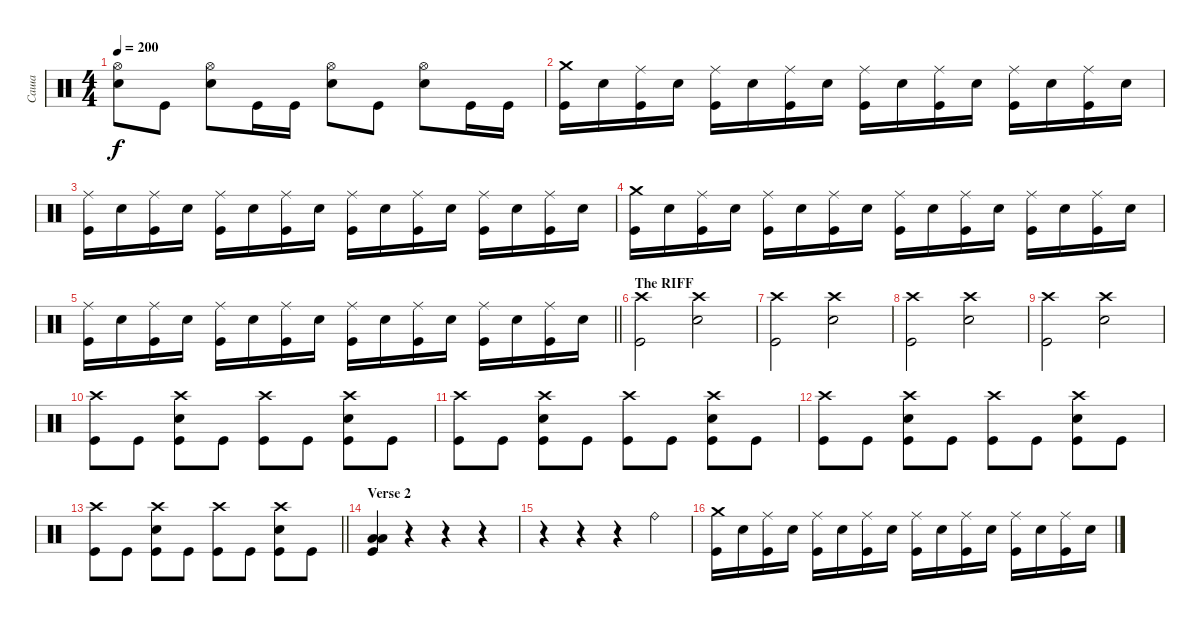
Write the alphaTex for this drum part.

\track ("Саша" "Саша") {instrument percussion}
\staff {score}
\articulation defaults
\ts (4 4)
\tempo 200
\clef neutral
\ks c
("Hi-Hat (open)" "Electric Snare (hit)").8{dy f} "Kick (hit)".8 ("Hi-Hat (open)" "Electric Snare (hit)").8 "Kick (hit)".16 "Kick (hit)".16 ("Hi-Hat (open)" "Electric Snare (hit)").8 "Kick (hit)".8 ("Hi-Hat (open)" "Electric Snare (hit)").8 "Kick (hit)".16 "Kick (hit)".16 |
("Crash medium (hit)" "Kick (hit)").16 "Electric Snare (hit)".16 ("Ride (middle)" "Kick (hit)").16 "Electric Snare (hit)".16 ("Ride (middle)" "Kick (hit)").16 "Electric Snare (hit)".16 ("Ride (middle)" "Kick (hit)").16 "Electric Snare (hit)".16 ("Ride (middle)" "Kick (hit)").16 "Electric Snare (hit)".16 ("Ride (middle)" "Kick (hit)").16 "Electric Snare (hit)".16 ("Ride (middle)" "Kick (hit)").16 "Electric Snare (hit)".16 ("Ride (middle)" "Kick (hit)").16 "Electric Snare (hit)".16 |
("Ride (middle)" "Kick (hit)").16 "Electric Snare (hit)".16 ("Ride (middle)" "Kick (hit)").16 "Electric Snare (hit)".16 ("Ride (middle)" "Kick (hit)").16 "Electric Snare (hit)".16 ("Ride (middle)" "Kick (hit)").16 "Electric Snare (hit)".16 ("Ride (middle)" "Kick (hit)").16 "Electric Snare (hit)".16 ("Ride (middle)" "Kick (hit)").16 "Electric Snare (hit)".16 ("Ride (middle)" "Kick (hit)").16 "Electric Snare (hit)".16 ("Ride (middle)" "Kick (hit)").16 "Electric Snare (hit)".16 |
("Crash medium (hit)" "Kick (hit)").16 "Electric Snare (hit)".16 ("Ride (middle)" "Kick (hit)").16 "Electric Snare (hit)".16 ("Ride (middle)" "Kick (hit)").16 "Electric Snare (hit)".16 ("Ride (middle)" "Kick (hit)").16 "Electric Snare (hit)".16 ("Ride (middle)" "Kick (hit)").16 "Electric Snare (hit)".16 ("Ride (middle)" "Kick (hit)").16 "Electric Snare (hit)".16 ("Ride (middle)" "Kick (hit)").16 "Electric Snare (hit)".16 ("Ride (middle)" "Kick (hit)").16 "Electric Snare (hit)".16 |
\barLineRight lightlight
("Ride (middle)" "Kick (hit)").16 "Electric Snare (hit)".16 ("Ride (middle)" "Kick (hit)").16 "Electric Snare (hit)".16 ("Ride (middle)" "Kick (hit)").16 "Electric Snare (hit)".16 ("Ride (middle)" "Kick (hit)").16 "Electric Snare (hit)".16 ("Ride (middle)" "Kick (hit)").16 "Electric Snare (hit)".16 ("Ride (middle)" "Kick (hit)").16 "Electric Snare (hit)".16 ("Ride (middle)" "Kick (hit)").16 "Electric Snare (hit)".16 ("Ride (middle)" "Kick (hit)").16 "Electric Snare (hit)".16 |
\section ("" "The RIFF")
("Crash high (hit)" "Kick (hit)").2 ("Crash high (hit)" "Electric Snare (hit)").2 |
("Crash high (hit)" "Kick (hit)").2 ("Crash high (hit)" "Electric Snare (hit)").2 |
("Crash high (hit)" "Kick (hit)").2 ("Crash high (hit)" "Electric Snare (hit)").2 |
("Crash high (hit)" "Kick (hit)").2 ("Crash high (hit)" "Electric Snare (hit)").2 |
("Crash high (hit)" "Kick (hit)").8 "Kick (hit)".8 ("Crash high (hit)" "Electric Snare (hit)" "Kick (hit)").8 "Kick (hit)".8 ("Crash high (hit)" "Kick (hit)").8 "Kick (hit)".8 ("Crash high (hit)" "Electric Snare (hit)" "Kick (hit)").8 "Kick (hit)".8 |
("Crash high (hit)" "Kick (hit)").8 "Kick (hit)".8 ("Crash high (hit)" "Electric Snare (hit)" "Kick (hit)").8 "Kick (hit)".8 ("Crash high (hit)" "Kick (hit)").8 "Kick (hit)".8 ("Crash high (hit)" "Electric Snare (hit)" "Kick (hit)").8 "Kick (hit)".8 |
("Crash high (hit)" "Kick (hit)").8 "Kick (hit)".8 ("Crash high (hit)" "Electric Snare (hit)" "Kick (hit)").8 "Kick (hit)".8 ("Crash high (hit)" "Kick (hit)").8 "Kick (hit)".8 ("Crash high (hit)" "Electric Snare (hit)" "Kick (hit)").8 "Kick (hit)".8 |
\barLineRight lightlight
("Crash high (hit)" "Kick (hit)").8 "Kick (hit)".8 ("Crash high (hit)" "Electric Snare (hit)" "Kick (hit)").8 "Kick (hit)".8 ("Crash high (hit)" "Kick (hit)").8 "Kick (hit)".8 ("Crash high (hit)" "Electric Snare (hit)" "Kick (hit)").8 "Kick (hit)".8 |
\section ("" "Verse 2")
("Low Tom (hit)" "Low Floor Tom (hit)" "Kick (hit)").4 r.4 r.4 r.4 |
r.4 r.4 r.4 "Ride (bell)".4 |
("Crash medium (hit)" "Kick (hit)").16 "Electric Snare (hit)".16 ("Ride (middle)" "Kick (hit)").16 "Electric Snare (hit)".16 ("Ride (middle)" "Kick (hit)").16 "Electric Snare (hit)".16 ("Ride (middle)" "Kick (hit)").16 "Electric Snare (hit)".16 ("Ride (middle)" "Kick (hit)").16 "Electric Snare (hit)".16 ("Ride (middle)" "Kick (hit)").16 "Electric Snare (hit)".16 ("Ride (middle)" "Kick (hit)").16 "Electric Snare (hit)".16 ("Ride (middle)" "Kick (hit)").16 "Electric Snare (hit)".16
